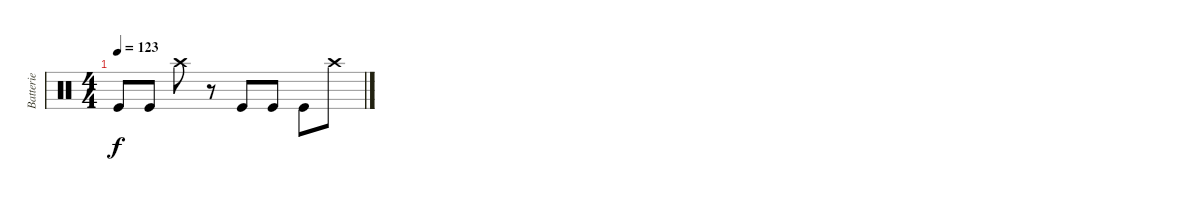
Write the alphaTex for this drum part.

\track ("Batterie" "Batterie") {instrument percussion}
\staff {score}
\articulation defaults
\ts (4 4)
\tempo 123
\clef neutral
\ks c "Kick (hit)".8{dy f} "Kick (hit)".8 "Crash high (hit)".8
r.8 "Kick (hit)".8 "Kick (hit)".8 "Kick (hit)".8 "Crash high (hit)".8
